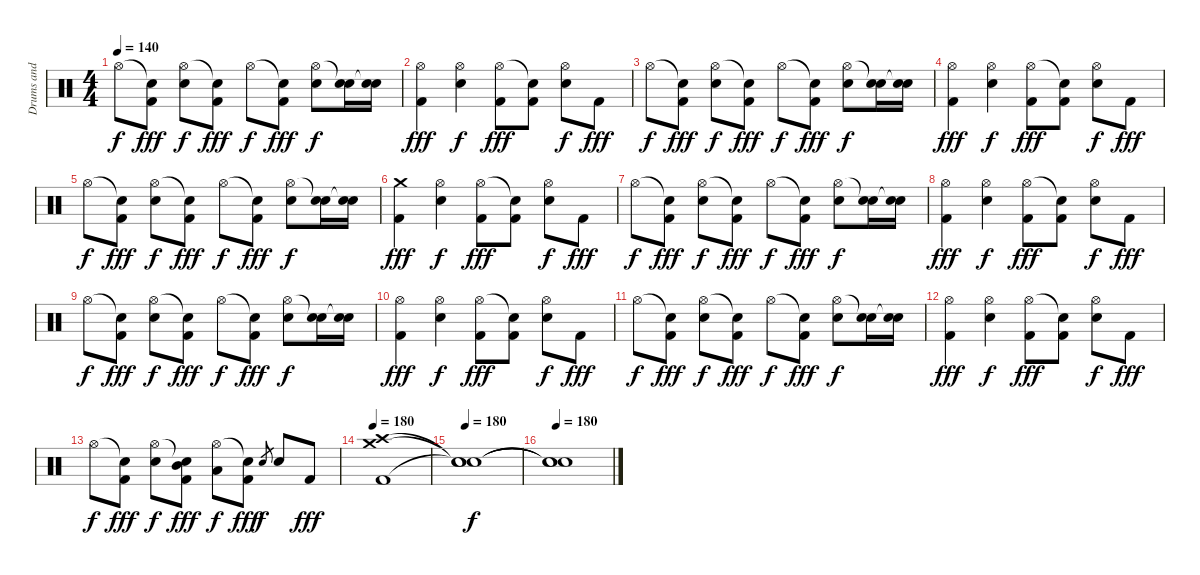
\track ("Drums and Percussion" "Drums and ") {instrument percussion}
\staff {score}
\articulation defaults
\ts (4 4)
\tempo 140
\clef neutral
\ks c "Hi-Hat (open)".8{dy f}
("Snare (hit)"{t} "Kick (hit) 2").8{dy fff} ("Hi-Hat (open)" "Snare (hit) 2").8{dy f} ("Snare (hit)"{t} "Kick (hit) 2").8{dy fff} "Hi-Hat (open)".8{dy f} ("Snare (hit)"{t} "Kick (hit) 2").8{dy fff} ("Hi-Hat (open)" "Snare (hit) 2").8{dy f} ("Snare (hit)"{t} "Snare (hit) 2").16 ("Snare (hit)"{t} "Snare (hit) 2").16 |
("Hi-Hat (open)" "Kick (hit) 2").4{dy fff} ("Hi-Hat (open)" "Snare (hit) 2").4{dy f} ("Hi-Hat (open)" "Kick (hit) 2").8{dy fff} ("Snare (hit)"{t} "Kick (hit) 2").8 ("Hi-Hat (open)" "Snare (hit) 2").8{dy f} "Kick (hit) 2".8{dy fff} |
"Hi-Hat (open)".8{dy f} ("Snare (hit)"{t} "Kick (hit) 2").8{dy fff} ("Hi-Hat (open)" "Snare (hit) 2").8{dy f} ("Snare (hit)"{t} "Kick (hit) 2").8{dy fff} "Hi-Hat (open)".8{dy f} ("Snare (hit)"{t} "Kick (hit) 2").8{dy fff} ("Hi-Hat (open)" "Snare (hit) 2").8{dy f} ("Snare (hit)"{t} "Snare (hit) 2").16 ("Snare (hit)"{t} "Snare (hit) 2").16 |
("Hi-Hat (open)" "Kick (hit) 2").4{dy fff} ("Hi-Hat (open)" "Snare (hit) 2").4{dy f} ("Hi-Hat (open)" "Kick (hit) 2").8{dy fff} ("Snare (hit)"{t} "Kick (hit) 2").8 ("Hi-Hat (open)" "Snare (hit) 2").8{dy f} "Kick (hit) 2".8{dy fff} |
"Hi-Hat (open)".8{dy f} ("Snare (hit)"{t} "Kick (hit) 2").8{dy fff} ("Hi-Hat (open)" "Snare (hit) 2").8{dy f} ("Snare (hit)"{t} "Kick (hit) 2").8{dy fff} "Hi-Hat (open)".8{dy f} ("Snare (hit)"{t} "Kick (hit) 2").8{dy fff} ("Hi-Hat (open)" "Snare (hit) 2").8{dy f} ("Snare (hit)"{t} "Snare (hit) 2").16 ("Snare (hit)"{t} "Snare (hit) 2").16 |
("Crash medium (hit)" "Kick (hit) 2").4{dy fff} ("Hi-Hat (open)" "Snare (hit) 2").4{dy f} ("Hi-Hat (open)" "Kick (hit) 2").8{dy fff} ("Snare (hit)"{t} "Kick (hit) 2").8 ("Hi-Hat (open)" "Snare (hit) 2").8{dy f} "Kick (hit) 2".8{dy fff} |
"Hi-Hat (open)".8{dy f} ("Snare (hit)"{t} "Kick (hit) 2").8{dy fff} ("Hi-Hat (open)" "Snare (hit) 2").8{dy f} ("Snare (hit)"{t} "Kick (hit) 2").8{dy fff} "Hi-Hat (open)".8{dy f} ("Snare (hit)"{t} "Kick (hit) 2").8{dy fff} ("Hi-Hat (open)" "Snare (hit) 2").8{dy f} ("Snare (hit)"{t} "Snare (hit) 2").16 ("Snare (hit)"{t} "Snare (hit) 2").16 |
("Hi-Hat (open)" "Kick (hit) 2").4{dy fff} ("Hi-Hat (open)" "Snare (hit) 2").4{dy f} ("Hi-Hat (open)" "Kick (hit) 2").8{dy fff} ("Snare (hit)"{t} "Kick (hit) 2").8 ("Hi-Hat (open)" "Snare (hit) 2").8{dy f} "Kick (hit) 2".8{dy fff} |
"Hi-Hat (open)".8{dy f} ("Snare (hit)"{t} "Kick (hit) 2").8{dy fff} ("Hi-Hat (open)" "Snare (hit) 2").8{dy f} ("Snare (hit)"{t} "Kick (hit) 2").8{dy fff} "Hi-Hat (open)".8{dy f} ("Snare (hit)"{t} "Kick (hit) 2").8{dy fff} ("Hi-Hat (open)" "Snare (hit) 2").8{dy f} ("Snare (hit)"{t} "Snare (hit) 2").16 ("Snare (hit)"{t} "Snare (hit) 2").16 |
("Hi-Hat (open)" "Kick (hit) 2").4{dy fff} ("Hi-Hat (open)" "Snare (hit) 2").4{dy f} ("Hi-Hat (open)" "Kick (hit) 2").8{dy fff} ("Snare (hit)"{t} "Kick (hit) 2").8 ("Hi-Hat (open)" "Snare (hit) 2").8{dy f} "Kick (hit) 2".8{dy fff} |
"Hi-Hat (open)".8{dy f} ("Snare (hit)"{t} "Kick (hit) 2").8{dy fff} ("Hi-Hat (open)" "Snare (hit) 2").8{dy f} ("Snare (hit)"{t} "Kick (hit) 2").8{dy fff} "Hi-Hat (open)".8{dy f} ("Snare (hit)"{t} "Kick (hit) 2").8{dy fff} ("Hi-Hat (open)" "Snare (hit) 2").8{dy f} ("Snare (hit)"{t} "Snare (hit) 2").16 ("Snare (hit)"{t} "Snare (hit) 2").16 |
("Hi-Hat (open)" "Kick (hit) 2").4{dy fff} ("Hi-Hat (open)" "Snare (hit) 2").4{dy f} ("Hi-Hat (open)" "Kick (hit) 2").8{dy fff} ("Snare (hit)"{t} "Kick (hit) 2").8 ("Hi-Hat (open)" "Snare (hit) 2").8{dy f} "Kick (hit) 2".8{dy fff} |
"Hi-Hat (open)".8{dy f} ("Snare (hit)"{t} "Kick (hit) 2").8{dy fff} ("Hi-Hat (open)" "Snare (hit) 2").8{dy f} ("Snare (hit)"{t} "Mid Tom (hit)" "Kick (hit) 2").8{dy fff} ("Hi-Hat (open)" "Low Tom (hit)").8{dy f} ("Snare (hit)"{t} "Kick (hit) 2").8{dy fff} "Snare (hit) 2".8{gr dy f} "Snare (hit) 2".8 "Kick (hit) 2".8{dy fff} |
\tempo 180
("Crash medium (hit)" "Crash high (hit)" "Kick (hit) 2").1 |
\tempo 180
("Snare (hit)"{t} "Snare (hit)"{t} "Snare (hit)"{t}).1{dy f} |
\tempo 180
("Snare (hit)"{t} "Snare (hit)"{t} "Snare (hit)"{t}).1
